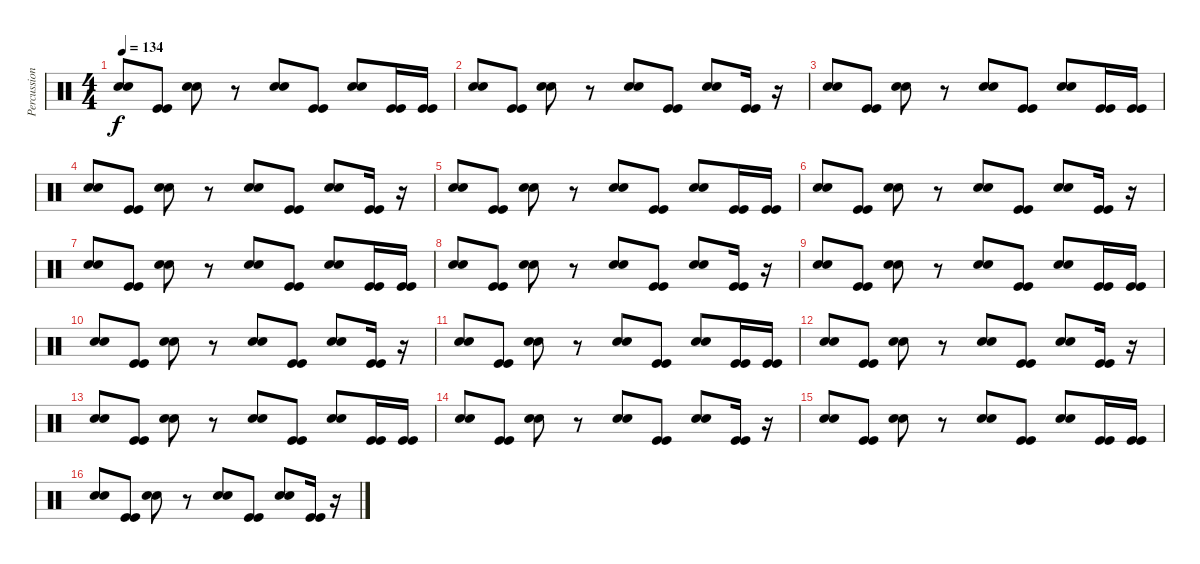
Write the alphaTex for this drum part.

\track ("Percussion (Rico)" "Percussion") {instrument percussion}
\staff {score}
\articulation defaults
\ts (4 4)
\tempo 134
\clef neutral
\ks c
("Electric Snare (hit)" "Electric Snare (hit)").8{dy f} ("Kick (hit)" "Kick (hit)").8 ("Electric Snare (hit)" "Electric Snare (hit)").8 r.8 ("Electric Snare (hit)" "Electric Snare (hit)").8 ("Kick (hit)" "Kick (hit)").8 ("Electric Snare (hit)" "Electric Snare (hit)").8 ("Kick (hit)" "Kick (hit)").16 ("Kick (hit)" "Kick (hit)").16 |
("Electric Snare (hit)" "Electric Snare (hit)").8 ("Kick (hit)" "Kick (hit)").8 ("Electric Snare (hit)" "Electric Snare (hit)").8 r.8 ("Electric Snare (hit)" "Electric Snare (hit)").8 ("Kick (hit)" "Kick (hit)").8 ("Electric Snare (hit)" "Electric Snare (hit)").8 ("Kick (hit)" "Kick (hit)").16 r.16 |
("Electric Snare (hit)" "Electric Snare (hit)").8 ("Kick (hit)" "Kick (hit)").8 ("Electric Snare (hit)" "Electric Snare (hit)").8 r.8 ("Electric Snare (hit)" "Electric Snare (hit)").8 ("Kick (hit)" "Kick (hit)").8 ("Electric Snare (hit)" "Electric Snare (hit)").8 ("Kick (hit)" "Kick (hit)").16 ("Kick (hit)" "Kick (hit)").16 |
("Electric Snare (hit)" "Electric Snare (hit)").8 ("Kick (hit)" "Kick (hit)").8 ("Electric Snare (hit)" "Electric Snare (hit)").8 r.8 ("Electric Snare (hit)" "Electric Snare (hit)").8 ("Kick (hit)" "Kick (hit)").8 ("Electric Snare (hit)" "Electric Snare (hit)").8 ("Kick (hit)" "Kick (hit)").16 r.16 |
("Electric Snare (hit)" "Electric Snare (hit)").8 ("Kick (hit)" "Kick (hit)").8 ("Electric Snare (hit)" "Electric Snare (hit)").8 r.8 ("Electric Snare (hit)" "Electric Snare (hit)").8 ("Kick (hit)" "Kick (hit)").8 ("Electric Snare (hit)" "Electric Snare (hit)").8 ("Kick (hit)" "Kick (hit)").16 ("Kick (hit)" "Kick (hit)").16 |
("Electric Snare (hit)" "Electric Snare (hit)").8 ("Kick (hit)" "Kick (hit)").8 ("Electric Snare (hit)" "Electric Snare (hit)").8 r.8 ("Electric Snare (hit)" "Electric Snare (hit)").8 ("Kick (hit)" "Kick (hit)").8 ("Electric Snare (hit)" "Electric Snare (hit)").8 ("Kick (hit)" "Kick (hit)").16 r.16 |
("Electric Snare (hit)" "Electric Snare (hit)").8 ("Kick (hit)" "Kick (hit)").8 ("Electric Snare (hit)" "Electric Snare (hit)").8 r.8 ("Electric Snare (hit)" "Electric Snare (hit)").8 ("Kick (hit)" "Kick (hit)").8 ("Electric Snare (hit)" "Electric Snare (hit)").8 ("Kick (hit)" "Kick (hit)").16 ("Kick (hit)" "Kick (hit)").16 |
("Electric Snare (hit)" "Electric Snare (hit)").8 ("Kick (hit)" "Kick (hit)").8 ("Electric Snare (hit)" "Electric Snare (hit)").8 r.8 ("Electric Snare (hit)" "Electric Snare (hit)").8 ("Kick (hit)" "Kick (hit)").8 ("Electric Snare (hit)" "Electric Snare (hit)").8 ("Kick (hit)" "Kick (hit)").16 r.16 |
("Electric Snare (hit)" "Electric Snare (hit)").8 ("Kick (hit)" "Kick (hit)").8 ("Electric Snare (hit)" "Electric Snare (hit)").8 r.8 ("Electric Snare (hit)" "Electric Snare (hit)").8 ("Kick (hit)" "Kick (hit)").8 ("Electric Snare (hit)" "Electric Snare (hit)").8 ("Kick (hit)" "Kick (hit)").16 ("Kick (hit)" "Kick (hit)").16 |
("Electric Snare (hit)" "Electric Snare (hit)").8 ("Kick (hit)" "Kick (hit)").8 ("Electric Snare (hit)" "Electric Snare (hit)").8 r.8 ("Electric Snare (hit)" "Electric Snare (hit)").8 ("Kick (hit)" "Kick (hit)").8 ("Electric Snare (hit)" "Electric Snare (hit)").8 ("Kick (hit)" "Kick (hit)").16 r.16 |
("Electric Snare (hit)" "Electric Snare (hit)").8 ("Kick (hit)" "Kick (hit)").8 ("Electric Snare (hit)" "Electric Snare (hit)").8 r.8 ("Electric Snare (hit)" "Electric Snare (hit)").8 ("Kick (hit)" "Kick (hit)").8 ("Electric Snare (hit)" "Electric Snare (hit)").8 ("Kick (hit)" "Kick (hit)").16 ("Kick (hit)" "Kick (hit)").16 |
("Electric Snare (hit)" "Electric Snare (hit)").8 ("Kick (hit)" "Kick (hit)").8 ("Electric Snare (hit)" "Electric Snare (hit)").8 r.8 ("Electric Snare (hit)" "Electric Snare (hit)").8 ("Kick (hit)" "Kick (hit)").8 ("Electric Snare (hit)" "Electric Snare (hit)").8 ("Kick (hit)" "Kick (hit)").16 r.16 |
("Electric Snare (hit)" "Electric Snare (hit)").8 ("Kick (hit)" "Kick (hit)").8 ("Electric Snare (hit)" "Electric Snare (hit)").8 r.8 ("Electric Snare (hit)" "Electric Snare (hit)").8 ("Kick (hit)" "Kick (hit)").8 ("Electric Snare (hit)" "Electric Snare (hit)").8 ("Kick (hit)" "Kick (hit)").16 ("Kick (hit)" "Kick (hit)").16 |
("Electric Snare (hit)" "Electric Snare (hit)").8 ("Kick (hit)" "Kick (hit)").8 ("Electric Snare (hit)" "Electric Snare (hit)").8 r.8 ("Electric Snare (hit)" "Electric Snare (hit)").8 ("Kick (hit)" "Kick (hit)").8 ("Electric Snare (hit)" "Electric Snare (hit)").8 ("Kick (hit)" "Kick (hit)").16 r.16 |
("Electric Snare (hit)" "Electric Snare (hit)").8 ("Kick (hit)" "Kick (hit)").8 ("Electric Snare (hit)" "Electric Snare (hit)").8 r.8 ("Electric Snare (hit)" "Electric Snare (hit)").8 ("Kick (hit)" "Kick (hit)").8 ("Electric Snare (hit)" "Electric Snare (hit)").8 ("Kick (hit)" "Kick (hit)").16 ("Kick (hit)" "Kick (hit)").16 |
("Electric Snare (hit)" "Electric Snare (hit)").8 ("Kick (hit)" "Kick (hit)").8 ("Electric Snare (hit)" "Electric Snare (hit)").8 r.8 ("Electric Snare (hit)" "Electric Snare (hit)").8 ("Kick (hit)" "Kick (hit)").8 ("Electric Snare (hit)" "Electric Snare (hit)").8 ("Kick (hit)" "Kick (hit)").16 r.16
